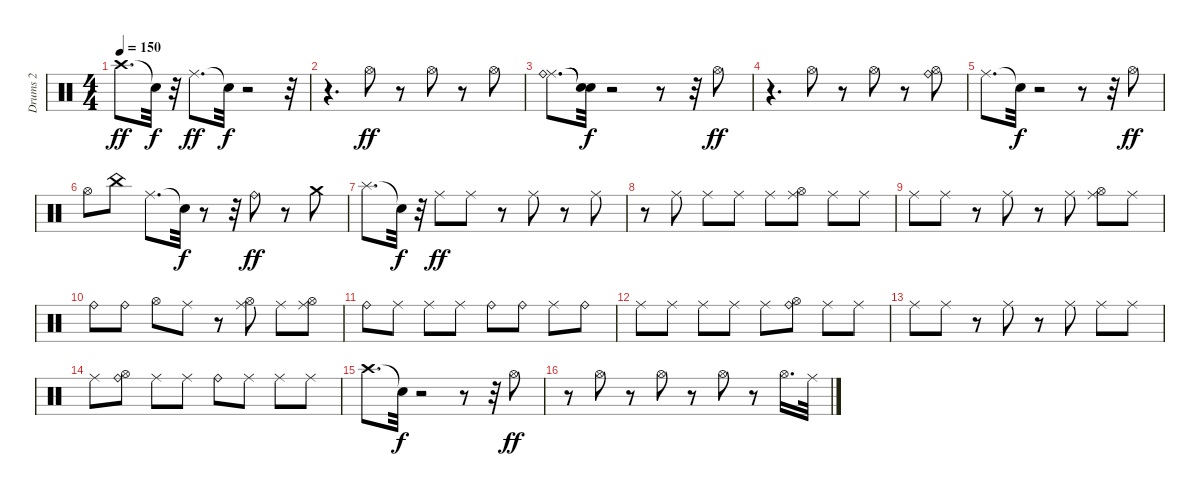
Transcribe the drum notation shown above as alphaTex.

\track ("Drums 2" "Drums 2") {instrument percussion}
\staff {score}
\articulation defaults
\ts (4 4)
\tempo 150
\clef neutral
\ks c "Crash high (hit)".8{d dy ff} "Snare (hit)"{t}.32{dy f}
r.32 "Ride (middle)".8{d dy ff} "Snare (hit)"{t}.32{dy f} r.2 r.32 |
r.4{d} "Hi-Hat (open)".8{dy ff} r.8 "Hi-Hat (open)".8 r.8 "Hi-Hat (open)".8 |
("Ride (middle)" "Ride (bell)").8{d} ("Snare (hit)"{t} "Snare (hit)"{t}).32{dy f} r.2 r.8 r.32 "Hi-Hat (open)".8{dy ff} |
r.4{d} "Hi-Hat (open)".8 r.8 "Hi-Hat (open)".8 r.8 ("Hi-Hat (open)" "Ride (bell)").8 |
"Ride (middle)".8{d} "Snare (hit)"{t}.32{dy f} r.2 r.8 r.32 "Hi-Hat (open)".8{dy ff} |
"Hi-Hat (open)".8 "China (hit)".8 "Ride (middle)".8{d} "Snare (hit)"{t}.32{dy f} r.8 r.32 "Ride (bell)".8{dy ff} r.8 "Crash medium (hit)".8 |
"Splash (hit)".8{d} "Snare (hit)"{t}.32{dy f} r.32 "Ride (middle)".8{dy ff} "Ride (middle)".8 r.8 "Ride (middle)".8 r.8 "Ride (middle)".8 |
r.8 "Ride (middle)".8 "Ride (middle)".8 "Ride (middle)".8 "Ride (middle)".8 ("Hi-Hat (open)" "Ride (middle)").8 "Ride (middle)".8 "Ride (middle)".8 |
"Ride (middle)".8 "Ride (middle)".8 r.8 "Ride (middle)".8 r.8 "Ride (middle)".8 ("Hi-Hat (open)" "Ride (middle)").8 "Ride (middle)".8 |
"Ride (bell)".8 "Ride (bell)".8 "Hi-Hat (open)".8 "Ride (middle)".8 r.8 ("Hi-Hat (open)" "Ride (middle)").8 "Ride (middle)".8 ("Hi-Hat (open)" "Ride (middle)").8 |
"Ride (bell)".8 "Ride (middle)".8 "Ride (middle)".8 "Ride (middle)".8 "Ride (bell)".8 "Ride (bell)".8 "Ride (middle)".8 "Ride (bell)".8 |
"Ride (middle)".8 "Ride (middle)".8 "Ride (middle)".8 "Ride (middle)".8 "Ride (middle)".8 ("Hi-Hat (open)" "Ride (bell)").8 "Ride (middle)".8 "Ride (middle)".8 |
"Ride (middle)".8 "Ride (middle)".8 r.8 "Ride (middle)".8 r.8 "Ride (middle)".8 "Ride (middle)".8 "Ride (middle)".8 |
"Ride (middle)".8 ("Hi-Hat (open)" "Ride (bell)").8 "Ride (middle)".8 "Ride (middle)".8 "Ride (bell)".8 "Ride (middle)".8 "Ride (middle)".8 "Ride (middle)".8 |
"Crash high (hit)".8{d} "Snare (hit)"{t}.32{dy f} r.2 r.8 r.32 "Hi-Hat (open)".8{dy ff} |
r.8 "Hi-Hat (open)".8 r.8 "Hi-Hat (open)".8 r.8 "Hi-Hat (open)".8 r.8 "Hi-Hat (open)".16{d} "Ride (middle)".32
